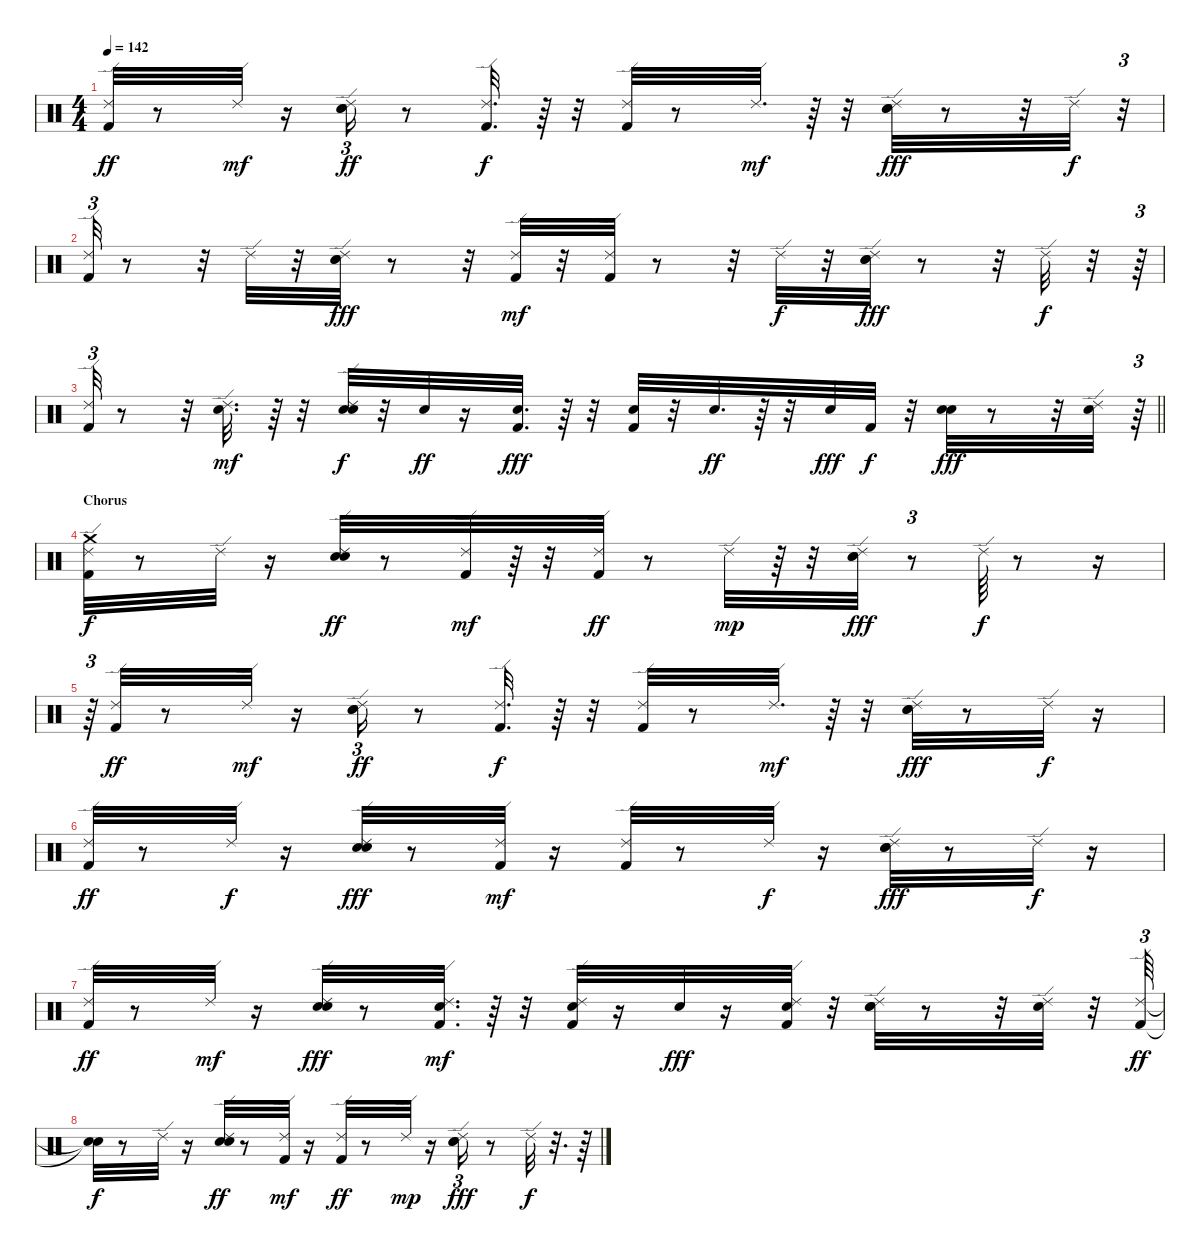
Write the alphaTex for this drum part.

\track "" {instrument percussion}
\staff {score}
\articulation defaults
\ts (4 4)
\tempo 142
\clef neutral
\ks c
("Kick (hit) 2" "Ride (edge) 2").32{dy ff} r.8 "Ride (edge) 2".32{dy mf} r.16 ("Hand Clap (hit)" "Electric Snare (hit)" "Ride (edge) 2").16{tu (3 2) dy ff} r.8 ("Kick (hit) 2" "Ride (edge) 2").32{d dy f} r.64 r.32 ("Kick (hit) 2" "Ride (edge) 2").32 r.8 "Ride (edge) 2".32{d dy mf} r.64 r.32 ("Hand Clap (hit)" "Electric Snare (hit)" "Ride (edge) 2").32{dy fff} r.8 r.32 "Ride (edge) 2".32{dy f} r.32{tu (3 2)} |
("Ride (edge) 2" "Kick (hit) 2").32{tu (3 2)} r.8 r.32 "Ride (edge) 2".32 r.32 ("Electric Snare (hit)" "Hand Clap (hit)" "Ride (edge) 2").32{dy fff} r.8 r.32 ("Kick (hit) 2" "Ride (edge) 2").32{dy mf} r.32 ("Kick (hit) 2" "Ride (edge) 2").32 r.8 r.32 "Ride (edge) 2".32{dy f} r.32 ("Electric Snare (hit)" "Hand Clap (hit)" "Ride (edge) 2").32{dy fff} r.8 r.32 "Ride (edge) 2".32{dy f} r.32 r.64{tu (3 2)} |
\barLineRight lightlight
("Kick (hit) 2" "Ride (edge) 2").32{tu (3 2)} r.8 r.32 ("Electric Snare (hit)" "Ride (edge) 2").32{d dy mf} r.64 r.32 ("Electric Snare (hit)" "Hand Clap (hit)" "Ride (edge) 2").32{dy f} r.32 "Electric Snare (hit)".32{dy ff} r.16 ("Kick (hit) 2" "Electric Snare (hit)").32{d dy fff} r.64 r.32 ("Electric Snare (hit)" "Kick (hit) 2").32 r.32 "Electric Snare (hit)".32{d dy ff} r.64 r.32 "Electric Snare (hit)".32{dy fff} "Kick (hit) 2".32{dy f} r.32 ("Hand Clap (hit)" "Electric Snare (hit)").32{dy fff} r.8 r.32 ("Ride (edge) 2" "Electric Snare (hit)").32 r.64{tu (3 2)} |
\section ("" "Chorus")
("Crash medium (hit)" "Ride (edge) 2" "Kick (hit) 2").32{dy f} r.8 "Ride (edge) 2".32 r.16 ("Hand Clap (hit)" "Electric Snare (hit)" "Ride (edge) 2").32{dy ff} r.8 ("Kick (hit) 2" "Ride (edge) 2").32{dy mf} r.64 r.32 ("Kick (hit) 2" "Ride (edge) 2").32{dy ff} r.8 "Ride (edge) 2".32{dy mp} r.64 r.32 ("Hand Clap (hit)" "Electric Snare (hit)" "Ride (edge) 2").32{dy fff} r.8{tu (3 2)} "Ride (edge) 2".64{dy f} r.8 r.16 |
r.64{tu (3 2)} ("Kick (hit) 2" "Ride (edge) 2").32{dy ff} r.8 "Ride (edge) 2".32{dy mf} r.16 ("Hand Clap (hit)" "Electric Snare (hit)" "Ride (edge) 2").16{tu (3 2) dy ff} r.8 ("Kick (hit) 2" "Ride (edge) 2").32{d dy f} r.64 r.32 ("Kick (hit) 2" "Ride (edge) 2").32 r.8 "Ride (edge) 2".32{d dy mf} r.64 r.32 ("Hand Clap (hit)" "Electric Snare (hit)" "Ride (edge) 2").32{dy fff} r.8 "Ride (edge) 2".32{dy f} r.16 |
("Ride (edge) 2" "Kick (hit) 2").32{dy ff} r.8 "Ride (edge) 2".32{dy f} r.16 ("Electric Snare (hit)" "Hand Clap (hit)" "Ride (edge) 2").32{dy fff} r.8 ("Kick (hit) 2" "Ride (edge) 2").32{dy mf} r.16 ("Kick (hit) 2" "Ride (edge) 2").32 r.8 "Ride (edge) 2".32{dy f} r.16 ("Electric Snare (hit)" "Hand Clap (hit)" "Ride (edge) 2").32{dy fff} r.8 "Ride (edge) 2".32{dy f} r.16 |
("Kick (hit) 2" "Ride (edge) 2").32{dy ff} r.8 "Ride (edge) 2".32{dy mf} r.16 ("Hand Clap (hit)" "Electric Snare (hit)" "Ride (edge) 2").32{dy fff} r.8 ("Kick (hit) 2" "Electric Snare (hit)" "Ride (edge) 2").32{d dy mf} r.64 r.32 ("Kick (hit) 2" "Electric Snare (hit)" "Ride (edge) 2").32 r.16 "Electric Snare (hit)".32{dy fff} r.16 ("Electric Snare (hit)" "Ride (edge) 2" "Kick (hit) 2").32 r.32 ("Electric Snare (hit)" "Hand Clap (hit)" "Ride (edge) 2").32 r.8 r.32 ("Electric Snare (hit)" "Ride (edge) 2").32 r.32 ("Ride (edge) 2" "Kick (hit) 2").64{tu (3 2) dy ff} |
("Snare (hit)"{t} "Snare (hit)"{t}).32{dy f} r.8 "Ride (edge) 2".32 r.16 ("Hand Clap (hit)" "Electric Snare (hit)" "Ride (edge) 2").32{dy ff} r.8 ("Kick (hit) 2" "Ride (edge) 2").32{dy mf} r.16 ("Kick (hit) 2" "Ride (edge) 2").32{dy ff} r.8 "Ride (edge) 2".32{dy mp} r.16 ("Hand Clap (hit)" "Electric Snare (hit)" "Ride (edge) 2").16{tu (3 2) dy fff} r.8 "Ride (edge) 2".32{dy f} r.32{d} r.64
